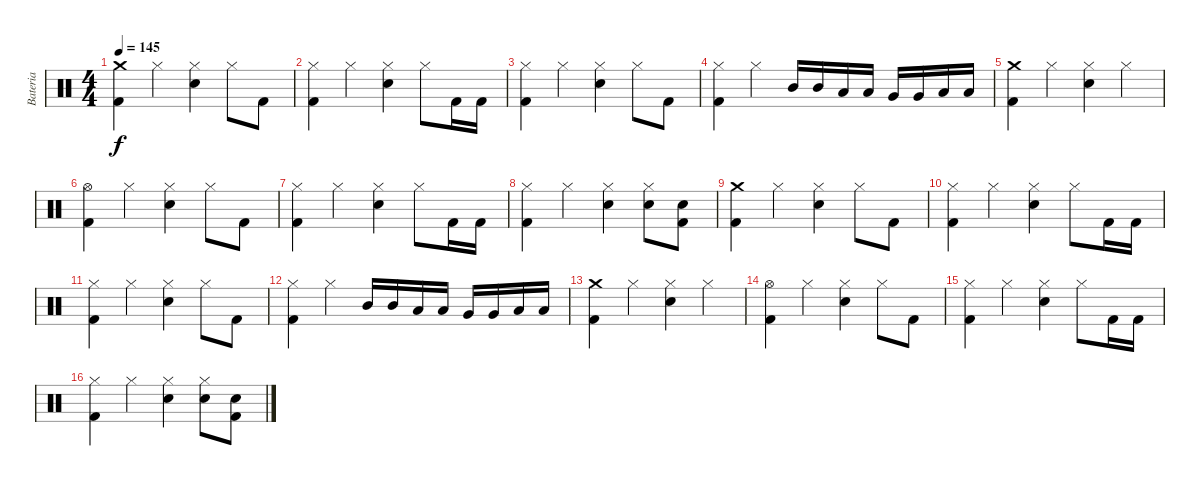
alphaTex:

\track ("Bateria" "Bateria") {instrument percussion}
\staff {score}
\articulation defaults
\ts (4 4)
\tempo 145
\clef neutral
\ks c
("Crash medium (hit)" "Kick (hit) 2").4{dy f} "Hi-Hat (closed)".4 ("Hi-Hat (closed)" "Snare (hit) 2").4 "Hi-Hat (closed)".8 "Kick (hit) 2".8 |
("Hi-Hat (closed)" "Kick (hit) 2").4 "Hi-Hat (closed)".4 ("Hi-Hat (closed)" "Snare (hit) 2").4 "Hi-Hat (closed)".8 "Kick (hit) 2".16 "Kick (hit) 2".16 |
("Hi-Hat (closed)" "Kick (hit) 2").4 "Hi-Hat (closed)".4 ("Hi-Hat (closed)" "Snare (hit) 2").4 "Hi-Hat (closed)".8 "Kick (hit) 2".8 |
("Hi-Hat (closed)" "Kick (hit) 2").4 "Hi-Hat (closed)".4 "Mid Tom (hit)".16 "Mid Tom (hit)".16 "Low Tom (hit)".16 "Low Tom (hit)".16 "Very Low Tom (hit)".16 "Very Low Tom (hit)".16 "Low Floor Tom (hit)".16 "Low Floor Tom (hit)".16 |
("Crash medium (hit)" "Kick (hit) 2").4 "Hi-Hat (closed)".4 ("Hi-Hat (closed)" "Snare (hit) 2").4 "Hi-Hat (closed)".4 |
("Hi-Hat (open)" "Kick (hit) 2").4 "Hi-Hat (closed)".4 ("Hi-Hat (closed)" "Snare (hit) 2").4 "Hi-Hat (closed)".8 "Kick (hit) 2".8 |
("Hi-Hat (closed)" "Kick (hit) 2").4 "Hi-Hat (closed)".4 ("Hi-Hat (closed)" "Snare (hit) 2").4 "Hi-Hat (closed)".8 "Kick (hit) 2".16 "Kick (hit) 2".16 |
("Hi-Hat (closed)" "Kick (hit) 2").4 "Hi-Hat (closed)".4 ("Hi-Hat (closed)" "Snare (hit) 2").4 ("Hi-Hat (closed)" "Snare (hit) 2").8 ("Snare (hit) 2" "Kick (hit) 2").8 |
("Crash medium (hit)" "Kick (hit) 2").4 "Hi-Hat (closed)".4 ("Hi-Hat (closed)" "Snare (hit) 2").4 "Hi-Hat (closed)".8 "Kick (hit) 2".8 |
("Hi-Hat (closed)" "Kick (hit) 2").4 "Hi-Hat (closed)".4 ("Hi-Hat (closed)" "Snare (hit) 2").4 "Hi-Hat (closed)".8 "Kick (hit) 2".16 "Kick (hit) 2".16 |
("Hi-Hat (closed)" "Kick (hit) 2").4 "Hi-Hat (closed)".4 ("Hi-Hat (closed)" "Snare (hit) 2").4 "Hi-Hat (closed)".8 "Kick (hit) 2".8 |
("Hi-Hat (closed)" "Kick (hit) 2").4 "Hi-Hat (closed)".4 "Mid Tom (hit)".16 "Mid Tom (hit)".16 "Low Tom (hit)".16 "Low Tom (hit)".16 "Very Low Tom (hit)".16 "Very Low Tom (hit)".16 "Low Floor Tom (hit)".16 "Low Floor Tom (hit)".16 |
("Crash medium (hit)" "Kick (hit) 2").4 "Hi-Hat (closed)".4 ("Hi-Hat (closed)" "Snare (hit) 2").4 "Hi-Hat (closed)".4 |
("Hi-Hat (open)" "Kick (hit) 2").4 "Hi-Hat (closed)".4 ("Hi-Hat (closed)" "Snare (hit) 2").4 "Hi-Hat (closed)".8 "Kick (hit) 2".8 |
("Hi-Hat (closed)" "Kick (hit) 2").4 "Hi-Hat (closed)".4 ("Hi-Hat (closed)" "Snare (hit) 2").4 "Hi-Hat (closed)".8 "Kick (hit) 2".16 "Kick (hit) 2".16 |
("Hi-Hat (closed)" "Kick (hit) 2").4 "Hi-Hat (closed)".4 ("Hi-Hat (closed)" "Snare (hit) 2").4 ("Hi-Hat (closed)" "Snare (hit) 2").8 ("Snare (hit) 2" "Kick (hit) 2").8
